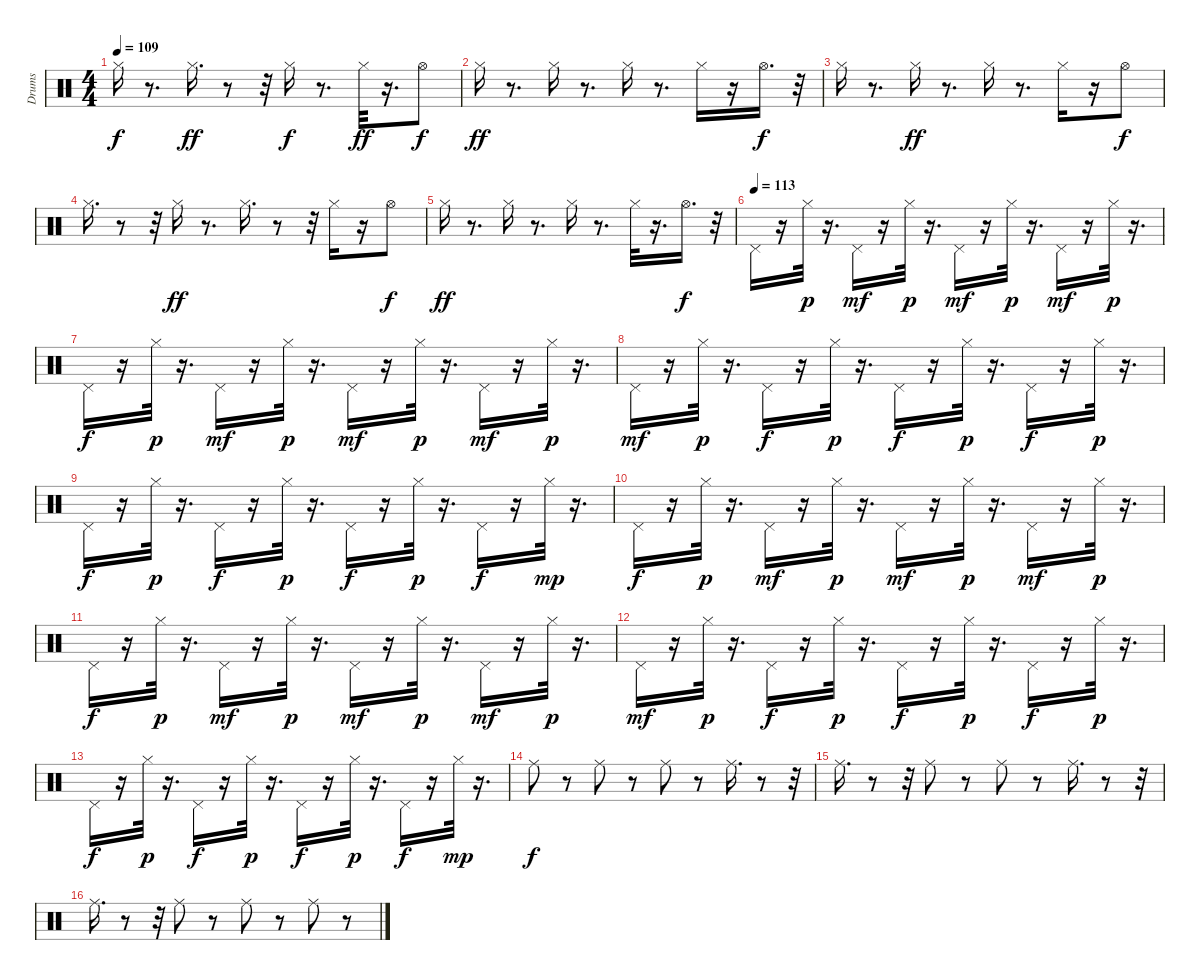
\track ("Drums" "Drums") {instrument percussion}
\staff {score}
\articulation defaults
\ts (4 4)
\tempo 109
\clef neutral
\ks c "Hi-Hat (closed)".16{dy f}
r.8{d} "Hi-Hat (closed)".16{d dy ff} r.8 r.32 "Hi-Hat (closed)".16{dy f} r.8{d} "Hi-Hat (closed)".32{dy ff} r.16{d} "Hi-Hat (open)".8{dy f} |
"Hi-Hat (closed)".16{dy ff} r.8{d} "Hi-Hat (closed)".16 r.8{d} "Hi-Hat (closed)".16 r.8{d} "Hi-Hat (closed)".16 r.16 "Hi-Hat (open)".16{d dy f} r.32 |
"Hi-Hat (closed)".16 r.8{d} "Hi-Hat (closed)".16{dy ff} r.8{d} "Hi-Hat (closed)".16 r.8{d} "Hi-Hat (closed)".16 r.16 "Hi-Hat (open)".8{dy f} |
"Hi-Hat (closed)".16{d} r.8 r.32 "Hi-Hat (closed)".16{dy ff} r.8{d} "Hi-Hat (closed)".16{d} r.8 r.32 "Hi-Hat (closed)".16 r.16 "Hi-Hat (open)".8{dy f} |
"Hi-Hat (closed)".16{dy ff} r.8{d} "Hi-Hat (closed)".16 r.8{d} "Hi-Hat (closed)".16 r.8{d} "Hi-Hat (closed)".32 r.16{d} "Hi-Hat (open)".16{d dy f} r.32 |
\tempo (113)
"Pedal Hi-Hat (hit)".16 r.16 "Hi-Hat (closed)".32{dy p} r.16{d} "Pedal Hi-Hat (hit)".16{dy mf} r.16 "Hi-Hat (closed)".32{dy p} r.16{d} "Pedal Hi-Hat (hit)".16{dy mf} r.16 "Hi-Hat (closed)".32{dy p} r.16{d} "Pedal Hi-Hat (hit)".16{dy mf} r.16 "Hi-Hat (closed)".32{dy p} r.16{d} |
"Pedal Hi-Hat (hit)".16{dy f} r.16 "Hi-Hat (closed)".32{dy p} r.16{d} "Pedal Hi-Hat (hit)".16{dy mf} r.16 "Hi-Hat (closed)".32{dy p} r.16{d} "Pedal Hi-Hat (hit)".16{dy mf} r.16 "Hi-Hat (closed)".32{dy p} r.16{d} "Pedal Hi-Hat (hit)".16{dy mf} r.16 "Hi-Hat (closed)".32{dy p} r.16{d} |
"Pedal Hi-Hat (hit)".16{dy mf} r.16 "Hi-Hat (closed)".32{dy p} r.16{d} "Pedal Hi-Hat (hit)".16{dy f} r.16 "Hi-Hat (closed)".32{dy p} r.16{d} "Pedal Hi-Hat (hit)".16{dy f} r.16 "Hi-Hat (closed)".32{dy p} r.16{d} "Pedal Hi-Hat (hit)".16{dy f} r.16 "Hi-Hat (closed)".32{dy p} r.16{d} |
"Pedal Hi-Hat (hit)".16{dy f} r.16 "Hi-Hat (closed)".32{dy p} r.16{d} "Pedal Hi-Hat (hit)".16{dy f} r.16 "Hi-Hat (closed)".32{dy p} r.16{d} "Pedal Hi-Hat (hit)".16{dy f} r.16 "Hi-Hat (closed)".32{dy p} r.16{d} "Pedal Hi-Hat (hit)".16{dy f} r.16 "Hi-Hat (closed)".32{dy mp} r.16{d} |
"Pedal Hi-Hat (hit)".16{dy f} r.16 "Hi-Hat (closed)".32{dy p} r.16{d} "Pedal Hi-Hat (hit)".16{dy mf} r.16 "Hi-Hat (closed)".32{dy p} r.16{d} "Pedal Hi-Hat (hit)".16{dy mf} r.16 "Hi-Hat (closed)".32{dy p} r.16{d} "Pedal Hi-Hat (hit)".16{dy mf} r.16 "Hi-Hat (closed)".32{dy p} r.16{d} |
"Pedal Hi-Hat (hit)".16{dy f} r.16 "Hi-Hat (closed)".32{dy p} r.16{d} "Pedal Hi-Hat (hit)".16{dy mf} r.16 "Hi-Hat (closed)".32{dy p} r.16{d} "Pedal Hi-Hat (hit)".16{dy mf} r.16 "Hi-Hat (closed)".32{dy p} r.16{d} "Pedal Hi-Hat (hit)".16{dy mf} r.16 "Hi-Hat (closed)".32{dy p} r.16{d} |
"Pedal Hi-Hat (hit)".16{dy mf} r.16 "Hi-Hat (closed)".32{dy p} r.16{d} "Pedal Hi-Hat (hit)".16{dy f} r.16 "Hi-Hat (closed)".32{dy p} r.16{d} "Pedal Hi-Hat (hit)".16{dy f} r.16 "Hi-Hat (closed)".32{dy p} r.16{d} "Pedal Hi-Hat (hit)".16{dy f} r.16 "Hi-Hat (closed)".32{dy p} r.16{d} |
"Pedal Hi-Hat (hit)".16{dy f} r.16 "Hi-Hat (closed)".32{dy p} r.16{d} "Pedal Hi-Hat (hit)".16{dy f} r.16 "Hi-Hat (closed)".32{dy p} r.16{d} "Pedal Hi-Hat (hit)".16{dy f} r.16 "Hi-Hat (closed)".32{dy p} r.16{d} "Pedal Hi-Hat (hit)".16{dy f} r.16 "Hi-Hat (closed)".32{dy mp} r.16{d} |
"Ride (middle)".8{dy f} r.8 "Ride (middle)".8 r.8 "Ride (middle)".8 r.8 "Ride (middle)".16{d} r.8 r.32 |
"Ride (middle)".16{d} r.8 r.32 "Ride (middle)".8 r.8 "Ride (middle)".8 r.8 "Ride (middle)".16{d} r.8 r.32 |
"Ride (middle)".16{d} r.8 r.32 "Ride (middle)".8 r.8 "Ride (middle)".8 r.8 "Ride (middle)".8 r.8
